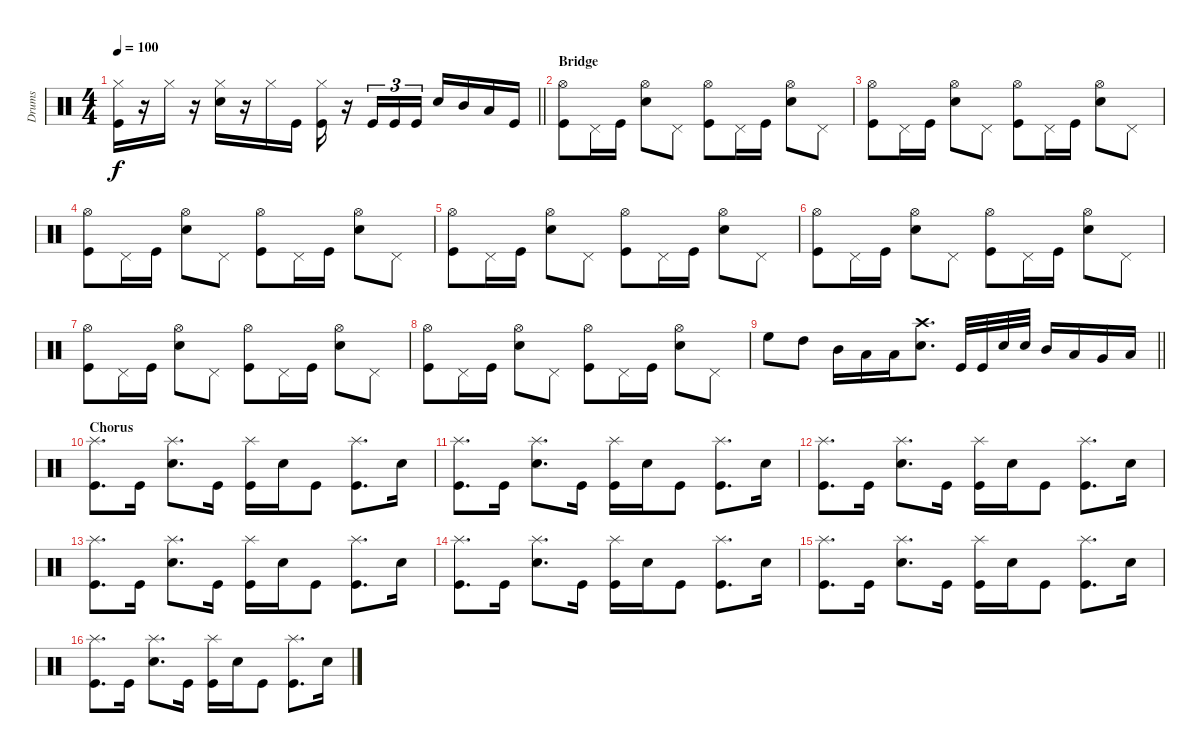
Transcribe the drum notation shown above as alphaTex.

\track ("Drums" "Drums") {instrument percussion}
\staff {score}
\articulation defaults
\ts (4 4)
\tempo 100
\clef neutral
\barLineRight lightlight
\ks c
("Hi-Hat (closed)" "Kick (hit)").16{dy f} r.16 "Hi-Hat (closed)".16 r.16 ("Hi-Hat (closed)" "Snare (hit) 2").16 r.16 "Hi-Hat (closed)".16 "Kick (hit)".16 ("Hi-Hat (closed)" "Kick (hit)").16 r.16 "Kick (hit)".16{tu (3 2)} "Kick (hit)".16{tu (3 2)} "Kick (hit)".16{tu (3 2)} "Snare (hit) 2".16 "Mid Tom (hit)".16 "Low Tom (hit)".16 "Kick (hit)".16 |
\section ("" "Bridge")
("Hi-Hat (open)" "Kick (hit)").8 "Pedal Hi-Hat (hit)".16 "Kick (hit)".16 ("Hi-Hat (open)" "Snare (hit) 2").8 "Pedal Hi-Hat (hit)".8 ("Hi-Hat (open)" "Kick (hit)").8 "Pedal Hi-Hat (hit)".16 "Kick (hit)".16 ("Hi-Hat (open)" "Snare (hit) 2").8 "Pedal Hi-Hat (hit)".8 |
("Hi-Hat (open)" "Kick (hit)").8 "Pedal Hi-Hat (hit)".16 "Kick (hit)".16 ("Hi-Hat (open)" "Snare (hit) 2").8 "Pedal Hi-Hat (hit)".8 ("Hi-Hat (open)" "Kick (hit)").8 "Pedal Hi-Hat (hit)".16 "Kick (hit)".16 ("Hi-Hat (open)" "Snare (hit) 2").8 "Pedal Hi-Hat (hit)".8 |
("Hi-Hat (open)" "Kick (hit)").8 "Pedal Hi-Hat (hit)".16 "Kick (hit)".16 ("Hi-Hat (open)" "Snare (hit) 2").8 "Pedal Hi-Hat (hit)".8 ("Hi-Hat (open)" "Kick (hit)").8 "Pedal Hi-Hat (hit)".16 "Kick (hit)".16 ("Hi-Hat (open)" "Snare (hit) 2").8 "Pedal Hi-Hat (hit)".8 |
("Hi-Hat (open)" "Kick (hit)").8 "Pedal Hi-Hat (hit)".16 "Kick (hit)".16 ("Hi-Hat (open)" "Snare (hit) 2").8 "Pedal Hi-Hat (hit)".8 ("Hi-Hat (open)" "Kick (hit)").8 "Pedal Hi-Hat (hit)".16 "Kick (hit)".16 ("Hi-Hat (open)" "Snare (hit) 2").8 "Pedal Hi-Hat (hit)".8 |
("Hi-Hat (open)" "Kick (hit)").8 "Pedal Hi-Hat (hit)".16 "Kick (hit)".16 ("Hi-Hat (open)" "Snare (hit) 2").8 "Pedal Hi-Hat (hit)".8 ("Hi-Hat (open)" "Kick (hit)").8 "Pedal Hi-Hat (hit)".16 "Kick (hit)".16 ("Hi-Hat (open)" "Snare (hit) 2").8 "Pedal Hi-Hat (hit)".8 |
("Hi-Hat (open)" "Kick (hit)").8 "Pedal Hi-Hat (hit)".16 "Kick (hit)".16 ("Hi-Hat (open)" "Snare (hit) 2").8 "Pedal Hi-Hat (hit)".8 ("Hi-Hat (open)" "Kick (hit)").8 "Pedal Hi-Hat (hit)".16 "Kick (hit)".16 ("Hi-Hat (open)" "Snare (hit) 2").8 "Pedal Hi-Hat (hit)".8 |
("Hi-Hat (open)" "Kick (hit)").8 "Pedal Hi-Hat (hit)".16 "Kick (hit)".16 ("Hi-Hat (open)" "Snare (hit) 2").8 "Pedal Hi-Hat (hit)".8 ("Hi-Hat (open)" "Kick (hit)").8 "Pedal Hi-Hat (hit)".16 "Kick (hit)".16 ("Hi-Hat (open)" "Snare (hit) 2").8 "Pedal Hi-Hat (hit)".8 |
\barLineRight lightlight "High Floor Tom (hit)".8 "High Tom (hit)".8 "Mid Tom (hit)".16 "Low Tom (hit)".16 "Low Floor Tom (hit)".16
("Crash high (hit)" "Snare (hit) 2").8{d} "Kick (hit)".32 "Kick (hit)".32 "Snare (hit) 2".32 "Snare (hit) 2".32 "Mid Tom (hit)".16 "Low Tom (hit)".16 "Very Low Tom (hit)".16 "Low Floor Tom (hit)".16 |
\section ("" "Chorus")
("Splash (hit)" "Kick (hit)").8{d} "Kick (hit)".16 ("Splash (hit)" "Snare (hit) 2").8{d} "Kick (hit)".16 ("Splash (hit)" "Kick (hit)").16 "Snare (hit) 2".16 "Kick (hit)".8 ("Splash (hit)" "Kick (hit)").8{d} "Snare (hit) 2".16 |
("Splash (hit)" "Kick (hit)").8{d} "Kick (hit)".16 ("Splash (hit)" "Snare (hit) 2").8{d} "Kick (hit)".16 ("Splash (hit)" "Kick (hit)").16 "Snare (hit) 2".16 "Kick (hit)".8 ("Splash (hit)" "Kick (hit)").8{d} "Snare (hit) 2".16 |
("Splash (hit)" "Kick (hit)").8{d} "Kick (hit)".16 ("Splash (hit)" "Snare (hit) 2").8{d} "Kick (hit)".16 ("Splash (hit)" "Kick (hit)").16 "Snare (hit) 2".16 "Kick (hit)".8 ("Splash (hit)" "Kick (hit)").8{d} "Snare (hit) 2".16 |
("Splash (hit)" "Kick (hit)").8{d} "Kick (hit)".16 ("Splash (hit)" "Snare (hit) 2").8{d} "Kick (hit)".16 ("Splash (hit)" "Kick (hit)").16 "Snare (hit) 2".16 "Kick (hit)".8 ("Splash (hit)" "Kick (hit)").8{d} "Snare (hit) 2".16 |
("Splash (hit)" "Kick (hit)").8{d} "Kick (hit)".16 ("Splash (hit)" "Snare (hit) 2").8{d} "Kick (hit)".16 ("Splash (hit)" "Kick (hit)").16 "Snare (hit) 2".16 "Kick (hit)".8 ("Splash (hit)" "Kick (hit)").8{d} "Snare (hit) 2".16 |
("Splash (hit)" "Kick (hit)").8{d} "Kick (hit)".16 ("Splash (hit)" "Snare (hit) 2").8{d} "Kick (hit)".16 ("Splash (hit)" "Kick (hit)").16 "Snare (hit) 2".16 "Kick (hit)".8 ("Splash (hit)" "Kick (hit)").8{d} "Snare (hit) 2".16 |
("Splash (hit)" "Kick (hit)").8{d} "Kick (hit)".16 ("Splash (hit)" "Snare (hit) 2").8{d} "Kick (hit)".16 ("Splash (hit)" "Kick (hit)").16 "Snare (hit) 2".16 "Kick (hit)".8 ("Splash (hit)" "Kick (hit)").8{d} "Snare (hit) 2".16
